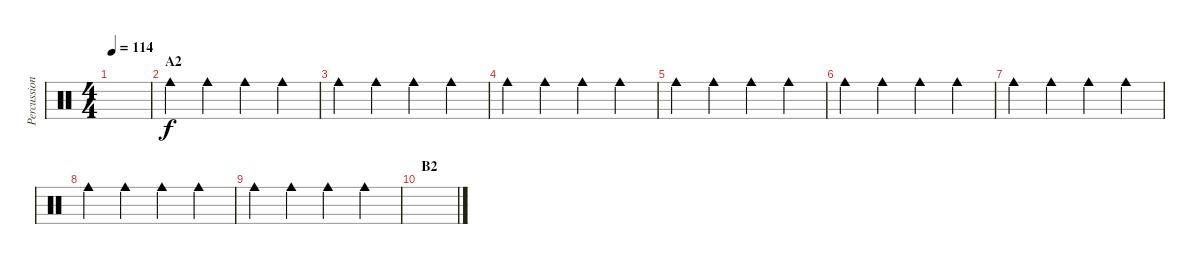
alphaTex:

\track ("Percussion" "Percussion") {instrument percussion}
\staff {score}
\articulation defaults
\ts (4 4)
\tempo 114
\clef neutral
\ks c
|
\section ("" "A2")
"Cowbell medium (hit)".4 "Cowbell medium (hit)".4 "Cowbell medium (hit)".4 "Cowbell medium (hit)".4 |
"Cowbell medium (hit)".4 "Cowbell medium (hit)".4 "Cowbell medium (hit)".4 "Cowbell medium (hit)".4 |
"Cowbell medium (hit)".4 "Cowbell medium (hit)".4 "Cowbell medium (hit)".4 "Cowbell medium (hit)".4 |
"Cowbell medium (hit)".4 "Cowbell medium (hit)".4 "Cowbell medium (hit)".4 "Cowbell medium (hit)".4 |
"Cowbell medium (hit)".4 "Cowbell medium (hit)".4 "Cowbell medium (hit)".4 "Cowbell medium (hit)".4 |
"Cowbell medium (hit)".4 "Cowbell medium (hit)".4 "Cowbell medium (hit)".4 "Cowbell medium (hit)".4 |
"Cowbell medium (hit)".4 "Cowbell medium (hit)".4 "Cowbell medium (hit)".4 "Cowbell medium (hit)".4 |
"Cowbell medium (hit)".4 "Cowbell medium (hit)".4 "Cowbell medium (hit)".4 "Cowbell medium (hit)".4 |
\section ("" "B2")
